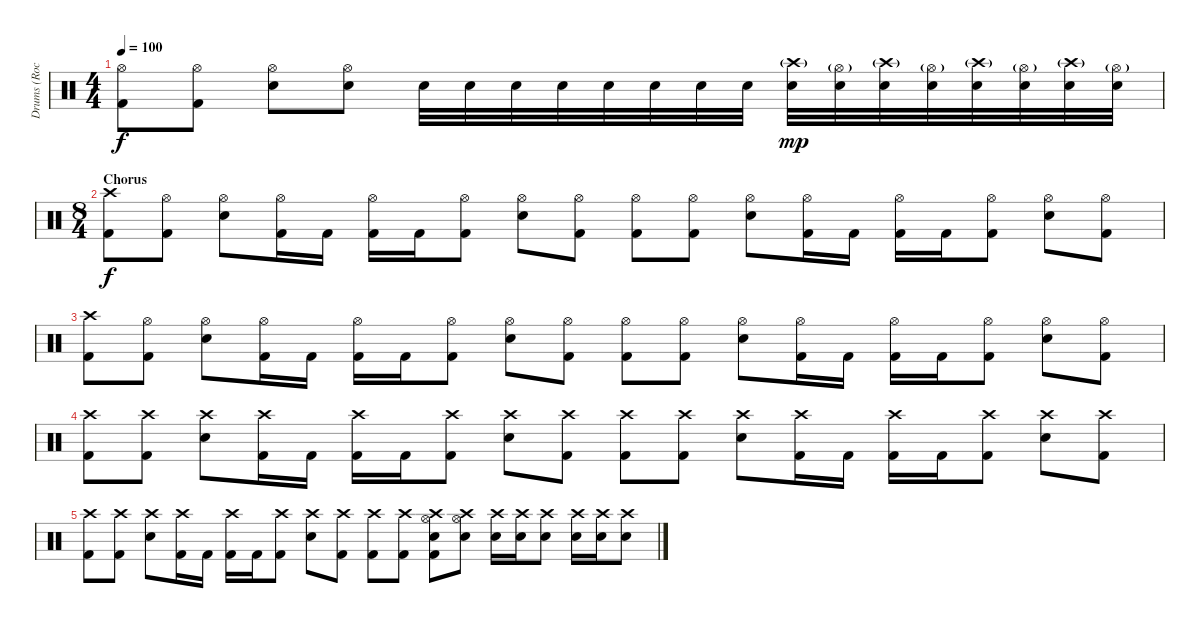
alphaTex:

\track ("Drums (Rocky Gray)" "Drums (Roc") {instrument percussion}
\staff {score}
\articulation defaults
\ts (4 4)
\tempo 100
\clef neutral
\ks c
("Hi-Hat (open)" "Kick (hit) 2").8{dy f} ("Hi-Hat (open)" "Kick (hit) 2").8 ("Hi-Hat (open)" "Electric Snare (hit)").8 ("Hi-Hat (open)" "Electric Snare (hit)").8 "Electric Snare (hit)".32 "Electric Snare (hit)".32 "Electric Snare (hit)".32 "Electric Snare (hit)".32 "Electric Snare (hit)".32 "Electric Snare (hit)".32 "Electric Snare (hit)".32 "Electric Snare (hit)".32 ("Crash high (hit)"{g} "Electric Snare (hit)").32{dy mp} ("Hi-Hat (open)"{g} "Electric Snare (hit)").32 ("Crash high (hit)"{g} "Electric Snare (hit)").32 ("Hi-Hat (open)"{g} "Electric Snare (hit)").32 ("Crash high (hit)"{g} "Electric Snare (hit)").32 ("Hi-Hat (open)"{g} "Electric Snare (hit)").32 ("Crash high (hit)"{g} "Electric Snare (hit)").32 ("Hi-Hat (open)"{g} "Electric Snare (hit)").32 |
\ts (8 4)
\section ("" "Chorus")
("Crash high (hit)" "Kick (hit) 2").8{dy f} ("Hi-Hat (open)" "Kick (hit) 2").8 ("Hi-Hat (open)" "Electric Snare (hit)").8 ("Hi-Hat (open)" "Kick (hit) 2").16 "Kick (hit) 2".16 ("Hi-Hat (open)" "Kick (hit) 2").16 "Kick (hit) 2".16 ("Hi-Hat (open)" "Kick (hit) 2").8 ("Hi-Hat (open)" "Electric Snare (hit)").8 ("Hi-Hat (open)" "Kick (hit) 2").8 ("Hi-Hat (open)" "Kick (hit) 2").8 ("Hi-Hat (open)" "Kick (hit) 2").8 ("Hi-Hat (open)" "Electric Snare (hit)").8 ("Hi-Hat (open)" "Kick (hit) 2").16 "Kick (hit) 2".16 ("Hi-Hat (open)" "Kick (hit) 2").16 "Kick (hit) 2".16 ("Hi-Hat (open)" "Kick (hit) 2").8 ("Hi-Hat (open)" "Electric Snare (hit)").8 ("Hi-Hat (open)" "Kick (hit) 2").8 |
("Crash high (hit)" "Kick (hit) 2").8 ("Hi-Hat (open)" "Kick (hit) 2").8 ("Hi-Hat (open)" "Electric Snare (hit)").8 ("Hi-Hat (open)" "Kick (hit) 2").16 "Kick (hit) 2".16 ("Hi-Hat (open)" "Kick (hit) 2").16 "Kick (hit) 2".16 ("Hi-Hat (open)" "Kick (hit) 2").8 ("Hi-Hat (open)" "Electric Snare (hit)").8 ("Hi-Hat (open)" "Kick (hit) 2").8 ("Hi-Hat (open)" "Kick (hit) 2").8 ("Hi-Hat (open)" "Kick (hit) 2").8 ("Hi-Hat (open)" "Electric Snare (hit)").8 ("Hi-Hat (open)" "Kick (hit) 2").16 "Kick (hit) 2".16 ("Hi-Hat (open)" "Kick (hit) 2").16 "Kick (hit) 2".16 ("Hi-Hat (open)" "Kick (hit) 2").8 ("Hi-Hat (open)" "Electric Snare (hit)").8 ("Hi-Hat (open)" "Kick (hit) 2").8 |
("Crash high (hit)" "Kick (hit) 2").8 ("Crash high (hit)" "Kick (hit) 2").8 ("Crash high (hit)" "Electric Snare (hit)").8 ("Crash high (hit)" "Kick (hit) 2").16 "Kick (hit) 2".16 ("Crash high (hit)" "Kick (hit) 2").16 "Kick (hit) 2".16 ("Crash high (hit)" "Kick (hit) 2").8 ("Crash high (hit)" "Electric Snare (hit)").8 ("Crash high (hit)" "Kick (hit) 2").8 ("Crash high (hit)" "Kick (hit) 2").8 ("Crash high (hit)" "Kick (hit) 2").8 ("Crash high (hit)" "Electric Snare (hit)").8 ("Crash high (hit)" "Kick (hit) 2").16 "Kick (hit) 2".16 ("Crash high (hit)" "Kick (hit) 2").16 "Kick (hit) 2".16 ("Crash high (hit)" "Kick (hit) 2").8 ("Crash high (hit)" "Electric Snare (hit)").8 ("Crash high (hit)" "Kick (hit) 2").8 |
("Crash high (hit)" "Kick (hit) 2").8 ("Crash high (hit)" "Kick (hit) 2").8 ("Crash high (hit)" "Electric Snare (hit)").8 ("Crash high (hit)" "Kick (hit) 2").16 "Kick (hit) 2".16 ("Crash high (hit)" "Kick (hit) 2").16 "Kick (hit) 2".16 ("Crash high (hit)" "Kick (hit) 2").8 ("Crash high (hit)" "Electric Snare (hit)").8 ("Crash high (hit)" "Kick (hit) 2").8 ("Crash high (hit)" "Kick (hit) 2").8 ("Crash high (hit)" "Kick (hit) 2").8 ("Crash high (hit)" "Hi-Hat (open)" "Electric Snare (hit)" "Kick (hit) 2").8 ("Crash high (hit)" "Hi-Hat (open)" "Electric Snare (hit)").8 ("Crash high (hit)" "Electric Snare (hit)").16 ("Crash high (hit)" "Electric Snare (hit)").16 ("Crash high (hit)" "Electric Snare (hit)").8 ("Crash high (hit)" "Electric Snare (hit)").16 ("Crash high (hit)" "Electric Snare (hit)").16 ("Crash high (hit)" "Electric Snare (hit)").8
